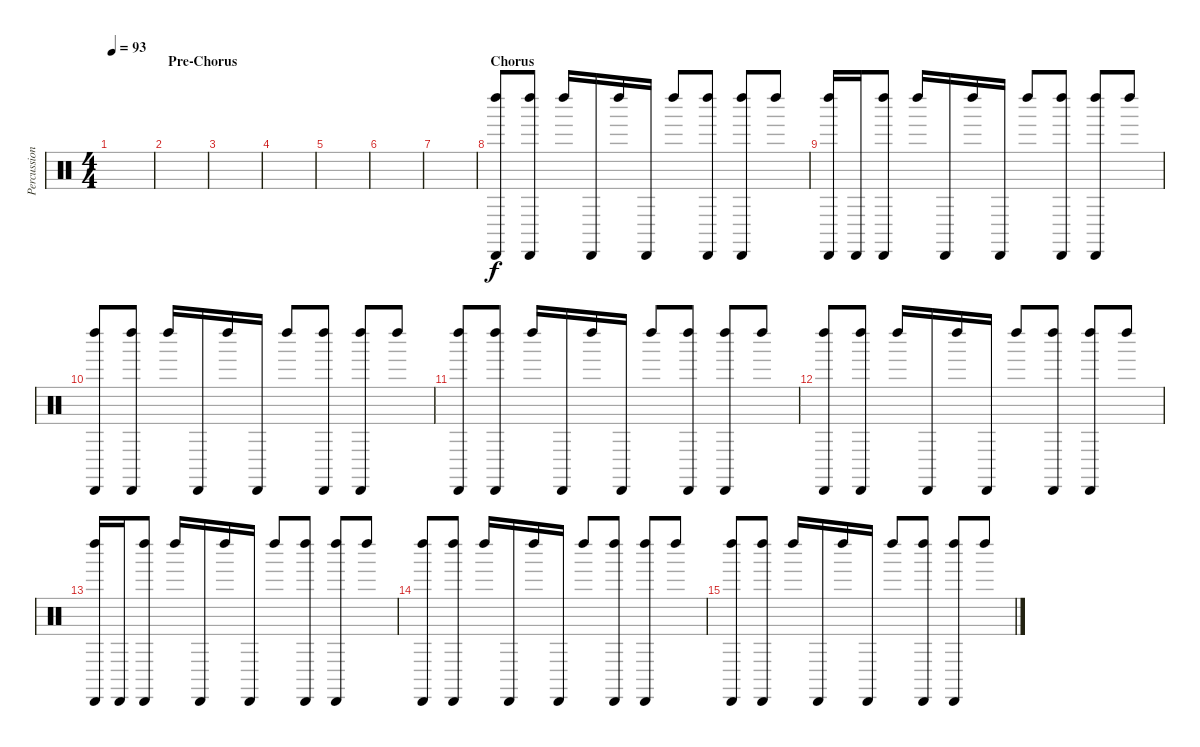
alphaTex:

\track ("Percussion" "Percussion") {instrument percussion}
\staff {score}
\articulation defaults
\ts (4 4)
\tempo 93
\clef neutral
\ks c
|
\section ("" "Pre-Chorus")
|
|
|
|
|
|
\section ("" "Chorus")
("Left Maraca (hit)" "Cabasa (hit)").8 ("Left Maraca (hit)" "Cabasa (hit)").8 "Left Maraca (hit)".16 "Cabasa (hit)".16 "Left Maraca (hit)".16 "Cabasa (hit)".16 "Left Maraca (hit)".8 ("Left Maraca (hit)" "Cabasa (hit)").8 ("Left Maraca (hit)" "Cabasa (hit)").8 "Left Maraca (hit)".8 |
("Left Maraca (hit)" "Cabasa (hit)").16 "Cabasa (hit)".16 ("Left Maraca (hit)" "Cabasa (hit)").8 "Left Maraca (hit)".16 "Cabasa (hit)".16 "Left Maraca (hit)".16 "Cabasa (hit)".16 "Left Maraca (hit)".8 ("Left Maraca (hit)" "Cabasa (hit)").8 ("Left Maraca (hit)" "Cabasa (hit)").8 "Left Maraca (hit)".8 |
("Left Maraca (hit)" "Cabasa (hit)").8 ("Left Maraca (hit)" "Cabasa (hit)").8 "Left Maraca (hit)".16 "Cabasa (hit)".16 "Left Maraca (hit)".16 "Cabasa (hit)".16 "Left Maraca (hit)".8 ("Left Maraca (hit)" "Cabasa (hit)").8 ("Left Maraca (hit)" "Cabasa (hit)").8 "Left Maraca (hit)".8 |
("Left Maraca (hit)" "Cabasa (hit)").8 ("Left Maraca (hit)" "Cabasa (hit)").8 "Left Maraca (hit)".16 "Cabasa (hit)".16 "Left Maraca (hit)".16 "Cabasa (hit)".16 "Left Maraca (hit)".8 ("Left Maraca (hit)" "Cabasa (hit)").8 ("Left Maraca (hit)" "Cabasa (hit)").8 "Left Maraca (hit)".8 |
("Left Maraca (hit)" "Cabasa (hit)").8 ("Left Maraca (hit)" "Cabasa (hit)").8 "Left Maraca (hit)".16 "Cabasa (hit)".16 "Left Maraca (hit)".16 "Cabasa (hit)".16 "Left Maraca (hit)".8 ("Left Maraca (hit)" "Cabasa (hit)").8 ("Left Maraca (hit)" "Cabasa (hit)").8 "Left Maraca (hit)".8 |
("Left Maraca (hit)" "Cabasa (hit)").16 "Cabasa (hit)".16 ("Left Maraca (hit)" "Cabasa (hit)").8 "Left Maraca (hit)".16 "Cabasa (hit)".16 "Left Maraca (hit)".16 "Cabasa (hit)".16 "Left Maraca (hit)".8 ("Left Maraca (hit)" "Cabasa (hit)").8 ("Left Maraca (hit)" "Cabasa (hit)").8 "Left Maraca (hit)".8 |
("Left Maraca (hit)" "Cabasa (hit)").8 ("Left Maraca (hit)" "Cabasa (hit)").8 "Left Maraca (hit)".16 "Cabasa (hit)".16 "Left Maraca (hit)".16 "Cabasa (hit)".16 "Left Maraca (hit)".8 ("Left Maraca (hit)" "Cabasa (hit)").8 ("Left Maraca (hit)" "Cabasa (hit)").8 "Left Maraca (hit)".8 |
("Left Maraca (hit)" "Cabasa (hit)").8 ("Left Maraca (hit)" "Cabasa (hit)").8 "Left Maraca (hit)".16 "Cabasa (hit)".16 "Left Maraca (hit)".16 "Cabasa (hit)".16 "Left Maraca (hit)".8 ("Left Maraca (hit)" "Cabasa (hit)").8 ("Left Maraca (hit)" "Cabasa (hit)").8 "Left Maraca (hit)".8
